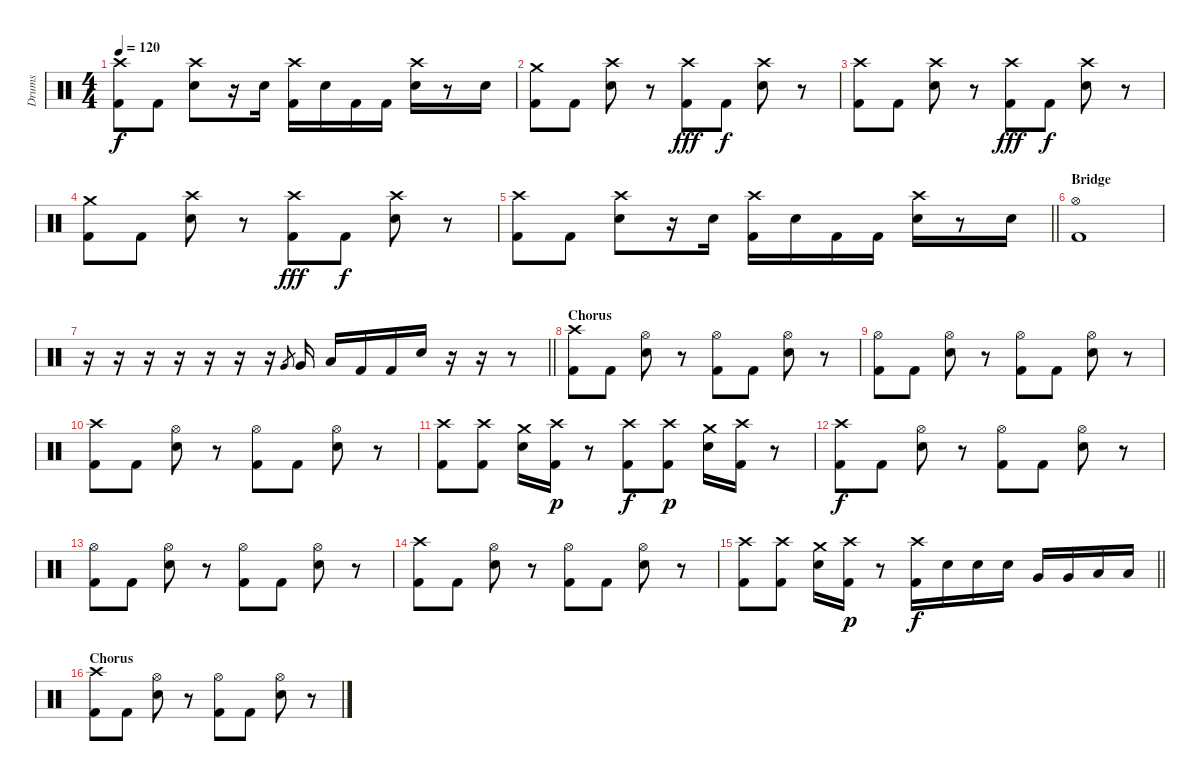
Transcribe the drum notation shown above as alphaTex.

\track ("Drums" "Drums") {instrument percussion}
\staff {score}
\articulation defaults
\ts (4 4)
\tempo 120
\clef neutral
\ks c
("Crash high (hit)" "Kick (hit) 2").8{dy f} "Kick (hit) 2".8 ("Crash high (hit)" "Snare (hit) 2").8 r.16 "Snare (hit) 2".16 ("Crash high (hit)" "Kick (hit) 2").16 "Snare (hit) 2".16 "Kick (hit) 2".16 "Kick (hit) 2".16 ("Crash high (hit)" "Snare (hit) 2").16 r.8 "Snare (hit) 2".16 |
("Crash medium (hit)" "Kick (hit) 2").8 "Kick (hit) 2".8 ("Crash high (hit)" "Electric Snare (hit)").8 r.8 ("Crash high (hit)" "Kick (hit) 2").8{dy fff} "Kick (hit) 2".8{dy f} ("Crash high (hit)" "Electric Snare (hit)").8 r.8 |
("Crash high (hit)" "Kick (hit) 2").8 "Kick (hit) 2".8 ("Crash high (hit)" "Electric Snare (hit)").8 r.8 ("Crash high (hit)" "Kick (hit) 2").8{dy fff} "Kick (hit) 2".8{dy f} ("Crash high (hit)" "Electric Snare (hit)").8 r.8 |
("Crash medium (hit)" "Kick (hit) 2").8 "Kick (hit) 2".8 ("Crash high (hit)" "Electric Snare (hit)").8 r.8 ("Crash high (hit)" "Kick (hit) 2").8{dy fff} "Kick (hit) 2".8{dy f} ("Crash high (hit)" "Electric Snare (hit)").8 r.8 |
\barLineRight lightlight
("Crash high (hit)" "Kick (hit) 2").8 "Kick (hit) 2".8 ("Crash high (hit)" "Snare (hit) 2").8 r.16 "Snare (hit) 2".16 ("Crash high (hit)" "Kick (hit) 2").16 "Snare (hit) 2".16 "Kick (hit) 2".16 "Kick (hit) 2".16 ("Crash high (hit)" "Snare (hit) 2").16 r.8 "Snare (hit) 2".16 |
\section ("" "Bridge")
("Hi-Hat (open)" "Kick (hit) 2").1 |
\barLineRight lightlight
r.16 r.16 r.16 r.16 r.16 r.16 r.16 "Very Low Tom (hit)".8{gr} "Very Low Tom (hit)".16 "Low Tom (hit)".16 "Kick (hit) 2".16 "Kick (hit) 2".16 "Snare (hit) 2".16 r.16 r.16 r.8 |
\section ("" "Chorus")
("Crash high (hit)" "Kick (hit) 2").8 "Kick (hit) 2".8 ("Hi-Hat (open)" "Snare (hit) 2").8 r.8 ("Hi-Hat (open)" "Kick (hit) 2").8 "Kick (hit) 2".8 ("Hi-Hat (open)" "Snare (hit) 2").8 r.8 |
("Hi-Hat (open)" "Kick (hit) 2").8 "Kick (hit) 2".8 ("Hi-Hat (open)" "Snare (hit) 2").8 r.8 ("Hi-Hat (open)" "Kick (hit) 2").8 "Kick (hit) 2".8 ("Hi-Hat (open)" "Snare (hit) 2").8 r.8 |
("Crash high (hit)" "Kick (hit) 2").8 "Kick (hit) 2".8 ("Hi-Hat (open)" "Snare (hit) 2").8 r.8 ("Hi-Hat (open)" "Kick (hit) 2").8 "Kick (hit) 2".8 ("Hi-Hat (open)" "Snare (hit) 2").8 r.8 |
("Crash high (hit)" "Kick (hit) 2").8 ("Crash high (hit)" "Kick (hit) 2").8 ("Crash medium (hit)" "Snare (hit) 2").16 ("Crash high (hit)" "Kick (hit) 2").16{dy p} r.8 ("Crash high (hit)" "Kick (hit) 2").8{dy f} ("Crash high (hit)" "Kick (hit) 2").8{dy p} ("Crash medium (hit)" "Snare (hit) 2").16 ("Crash high (hit)" "Kick (hit) 2").16 r.8 |
("Crash high (hit)" "Kick (hit) 2").8{dy f} "Kick (hit) 2".8 ("Hi-Hat (open)" "Snare (hit) 2").8 r.8 ("Hi-Hat (open)" "Kick (hit) 2").8 "Kick (hit) 2".8 ("Hi-Hat (open)" "Snare (hit) 2").8 r.8 |
("Hi-Hat (open)" "Kick (hit) 2").8 "Kick (hit) 2".8 ("Hi-Hat (open)" "Snare (hit) 2").8 r.8 ("Hi-Hat (open)" "Kick (hit) 2").8 "Kick (hit) 2".8 ("Hi-Hat (open)" "Snare (hit) 2").8 r.8 |
("Crash high (hit)" "Kick (hit) 2").8 "Kick (hit) 2".8 ("Hi-Hat (open)" "Snare (hit) 2").8 r.8 ("Hi-Hat (open)" "Kick (hit) 2").8 "Kick (hit) 2".8 ("Hi-Hat (open)" "Snare (hit) 2").8 r.8 |
\barLineRight lightlight
("Crash high (hit)" "Kick (hit) 2").8 ("Crash high (hit)" "Kick (hit) 2").8 ("Crash medium (hit)" "Snare (hit) 2").16 ("Crash high (hit)" "Kick (hit) 2").16{dy p} r.8 ("Crash high (hit)" "Kick (hit) 2").16{dy f} "Snare (hit) 2".16 "Snare (hit) 2".16 "Snare (hit) 2".16 "Very Low Tom (hit)".16 "Very Low Tom (hit)".16 "Low Tom (hit)".16 "Low Tom (hit)".16 |
\section ("" "Chorus")
("Crash high (hit)" "Kick (hit) 2").8 "Kick (hit) 2".8 ("Hi-Hat (open)" "Snare (hit) 2").8 r.8 ("Hi-Hat (open)" "Kick (hit) 2").8 "Kick (hit) 2".8 ("Hi-Hat (open)" "Snare (hit) 2").8 r.8
